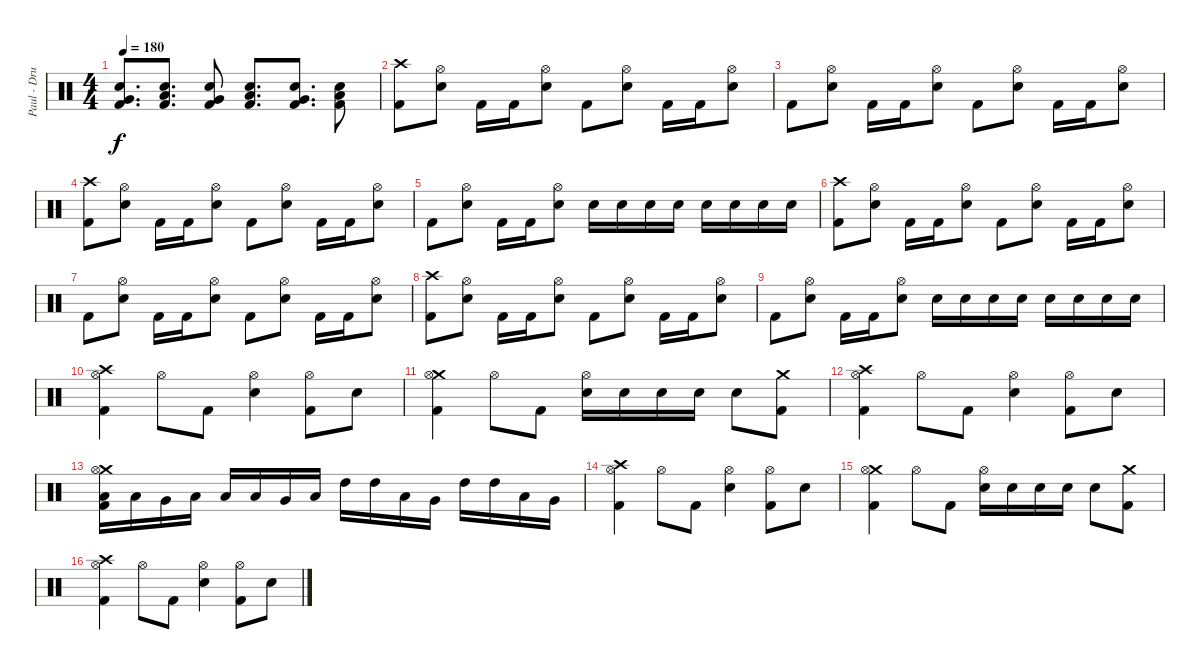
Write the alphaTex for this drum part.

\track ("Paul - Drums" "Paul - Dru") {instrument percussion}
\staff {score}
\articulation defaults
\ts (4 4)
\tempo 180
\clef neutral
\ks c
("Very Low Tom (hit)" "Electric Snare (hit)" "Kick (hit) 2").8{d dy f} ("Low Tom (hit)" "Electric Snare (hit)" "Kick (hit) 2").8{d} ("Very Low Tom (hit)" "Electric Snare (hit)" "Kick (hit) 2").8 ("Low Floor Tom (hit)" "Electric Snare (hit)" "Kick (hit) 2").8{d} ("Very Low Tom (hit)" "Electric Snare (hit)" "Kick (hit) 2").8{d} ("Low Floor Tom (hit)" "Electric Snare (hit)" "Kick (hit) 2").8 |
("Crash high (hit)" "Kick (hit) 2").8 ("Hi-Hat (open)" "Electric Snare (hit)").8 "Kick (hit) 2".16 "Kick (hit) 2".16 ("Hi-Hat (open)" "Electric Snare (hit)").8 "Kick (hit) 2".8 ("Hi-Hat (open)" "Electric Snare (hit)").8 "Kick (hit) 2".16 "Kick (hit) 2".16 ("Hi-Hat (open)" "Electric Snare (hit)").8 |
"Kick (hit) 2".8 ("Hi-Hat (open)" "Electric Snare (hit)").8 "Kick (hit) 2".16 "Kick (hit) 2".16 ("Hi-Hat (open)" "Electric Snare (hit)").8 "Kick (hit) 2".8 ("Hi-Hat (open)" "Electric Snare (hit)").8 "Kick (hit) 2".16 "Kick (hit) 2".16 ("Hi-Hat (open)" "Electric Snare (hit)").8 |
("Crash high (hit)" "Kick (hit) 2").8 ("Hi-Hat (open)" "Electric Snare (hit)").8 "Kick (hit) 2".16 "Kick (hit) 2".16 ("Hi-Hat (open)" "Electric Snare (hit)").8 "Kick (hit) 2".8 ("Hi-Hat (open)" "Electric Snare (hit)").8 "Kick (hit) 2".16 "Kick (hit) 2".16 ("Hi-Hat (open)" "Electric Snare (hit)").8 |
"Kick (hit) 2".8 ("Hi-Hat (open)" "Electric Snare (hit)").8 "Kick (hit) 2".16 "Kick (hit) 2".16 ("Hi-Hat (open)" "Electric Snare (hit)").8 "Electric Snare (hit)".16 "Electric Snare (hit)".16 "Electric Snare (hit)".16 "Electric Snare (hit)".16 "Electric Snare (hit)".16 "Electric Snare (hit)".16 "Electric Snare (hit)".16 "Electric Snare (hit)".16 |
("Crash high (hit)" "Kick (hit) 2").8 ("Hi-Hat (open)" "Electric Snare (hit)").8 "Kick (hit) 2".16 "Kick (hit) 2".16 ("Hi-Hat (open)" "Electric Snare (hit)").8 "Kick (hit) 2".8 ("Hi-Hat (open)" "Electric Snare (hit)").8 "Kick (hit) 2".16 "Kick (hit) 2".16 ("Hi-Hat (open)" "Electric Snare (hit)").8 |
"Kick (hit) 2".8 ("Hi-Hat (open)" "Electric Snare (hit)").8 "Kick (hit) 2".16 "Kick (hit) 2".16 ("Hi-Hat (open)" "Electric Snare (hit)").8 "Kick (hit) 2".8 ("Hi-Hat (open)" "Electric Snare (hit)").8 "Kick (hit) 2".16 "Kick (hit) 2".16 ("Hi-Hat (open)" "Electric Snare (hit)").8 |
("Crash high (hit)" "Kick (hit) 2").8 ("Hi-Hat (open)" "Electric Snare (hit)").8 "Kick (hit) 2".16 "Kick (hit) 2".16 ("Hi-Hat (open)" "Electric Snare (hit)").8 "Kick (hit) 2".8 ("Hi-Hat (open)" "Electric Snare (hit)").8 "Kick (hit) 2".16 "Kick (hit) 2".16 ("Hi-Hat (open)" "Electric Snare (hit)").8 |
"Kick (hit) 2".8 ("Hi-Hat (open)" "Electric Snare (hit)").8 "Kick (hit) 2".16 "Kick (hit) 2".16 ("Hi-Hat (open)" "Electric Snare (hit)").8 "Electric Snare (hit)".16 "Electric Snare (hit)".16 "Electric Snare (hit)".16 "Electric Snare (hit)".16 "Electric Snare (hit)".16 "Electric Snare (hit)".16 "Electric Snare (hit)".16 "Electric Snare (hit)".16 |
("Crash high (hit)" "Hi-Hat (open)" "Kick (hit) 2").4 "Hi-Hat (open)".8 "Kick (hit) 2".8 ("Hi-Hat (open)" "Electric Snare (hit)").4 ("Hi-Hat (open)" "Kick (hit) 2").8 "Electric Snare (hit)".8 |
("Crash medium (hit)" "Hi-Hat (open)" "Kick (hit) 2").4 "Hi-Hat (open)".8 "Kick (hit) 2".8 ("Hi-Hat (open)" "Electric Snare (hit)").16 "Electric Snare (hit)".16 "Electric Snare (hit)".16 "Electric Snare (hit)".16 "Electric Snare (hit)".8 ("Crash medium (hit)" "Kick (hit) 2").8 |
("Crash high (hit)" "Hi-Hat (open)" "Kick (hit) 2").4 "Hi-Hat (open)".8 "Kick (hit) 2".8 ("Hi-Hat (open)" "Electric Snare (hit)").4 ("Hi-Hat (open)" "Kick (hit) 2").8 "Electric Snare (hit)".8 |
("Crash medium (hit)" "Hi-Hat (open)" "Low Tom (hit)" "Kick (hit) 2").16 "Low Tom (hit)".16 "Very Low Tom (hit)".16 "Low Floor Tom (hit)".16 "Low Tom (hit)".16 "Low Tom (hit)".16 "Very Low Tom (hit)".16 "Low Floor Tom (hit)".16 "High Tom (hit)".16 "High Tom (hit)".16 "Low Tom (hit)".16 "Very Low Tom (hit)".16 "High Tom (hit)".16 "High Tom (hit)".16 "Low Tom (hit)".16 "Very Low Tom (hit)".16 |
("Crash high (hit)" "Hi-Hat (open)" "Kick (hit) 2").4 "Hi-Hat (open)".8 "Kick (hit) 2".8 ("Hi-Hat (open)" "Electric Snare (hit)").4 ("Hi-Hat (open)" "Kick (hit) 2").8 "Electric Snare (hit)".8 |
("Crash medium (hit)" "Hi-Hat (open)" "Kick (hit) 2").4 "Hi-Hat (open)".8 "Kick (hit) 2".8 ("Hi-Hat (open)" "Electric Snare (hit)").16 "Electric Snare (hit)".16 "Electric Snare (hit)".16 "Electric Snare (hit)".16 "Electric Snare (hit)".8 ("Crash medium (hit)" "Kick (hit) 2").8 |
("Crash high (hit)" "Hi-Hat (open)" "Kick (hit) 2").4 "Hi-Hat (open)".8 "Kick (hit) 2".8 ("Hi-Hat (open)" "Electric Snare (hit)").4 ("Hi-Hat (open)" "Kick (hit) 2").8 "Electric Snare (hit)".8
